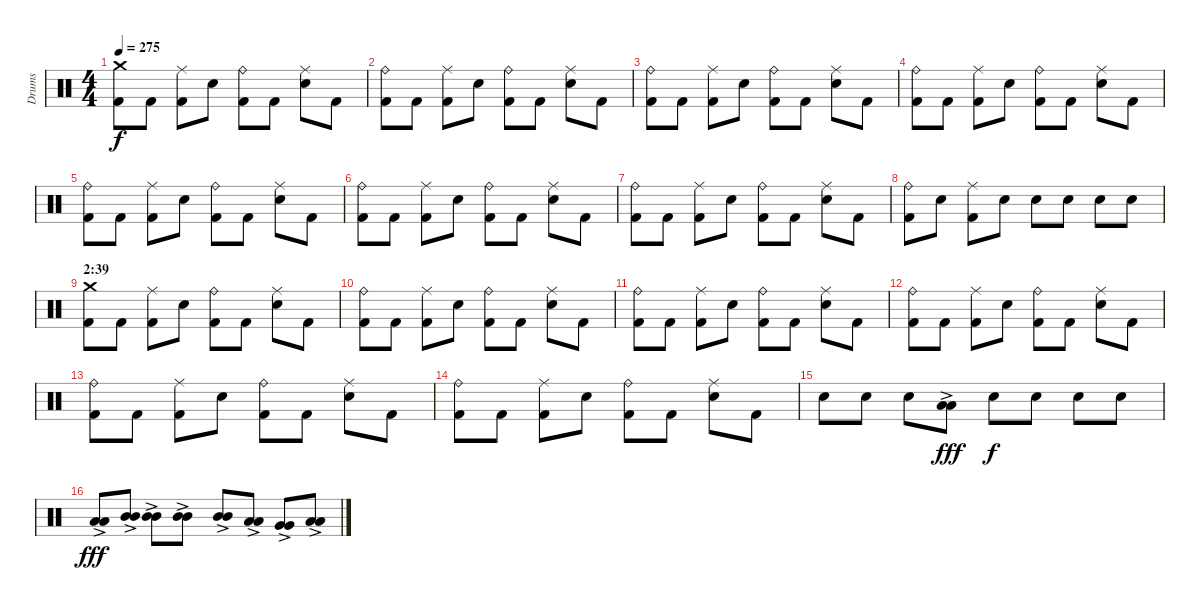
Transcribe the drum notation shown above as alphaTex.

\track ("Drums" "Drums") {instrument percussion}
\staff {score}
\articulation defaults
\ts (4 4)
\tempo 275
\clef neutral
\ks c
("Crash medium (hit)" "Kick (hit) 2").8{dy f} "Kick (hit) 2".8 ("Ride (middle)" "Kick (hit) 2").8 "Electric Snare (hit)".8 ("Ride (bell)" "Kick (hit) 2").8 "Kick (hit) 2".8 ("Ride (middle)" "Electric Snare (hit)").8 "Kick (hit) 2".8 |
("Ride (bell)" "Kick (hit) 2").8 "Kick (hit) 2".8 ("Ride (middle)" "Kick (hit) 2").8 "Electric Snare (hit)".8 ("Ride (bell)" "Kick (hit) 2").8 "Kick (hit) 2".8 ("Ride (middle)" "Electric Snare (hit)").8 "Kick (hit) 2".8 |
("Ride (bell)" "Kick (hit) 2").8 "Kick (hit) 2".8 ("Ride (middle)" "Kick (hit) 2").8 "Electric Snare (hit)".8 ("Ride (bell)" "Kick (hit) 2").8 "Kick (hit) 2".8 ("Ride (middle)" "Electric Snare (hit)").8 "Kick (hit) 2".8 |
("Ride (bell)" "Kick (hit) 2").8 "Kick (hit) 2".8 ("Ride (middle)" "Kick (hit) 2").8 "Electric Snare (hit)".8 ("Ride (bell)" "Kick (hit) 2").8 "Kick (hit) 2".8 ("Ride (middle)" "Electric Snare (hit)").8 "Kick (hit) 2".8 |
("Ride (bell)" "Kick (hit) 2").8 "Kick (hit) 2".8 ("Ride (middle)" "Kick (hit) 2").8 "Electric Snare (hit)".8 ("Ride (bell)" "Kick (hit) 2").8 "Kick (hit) 2".8 ("Ride (middle)" "Electric Snare (hit)").8 "Kick (hit) 2".8 |
("Ride (bell)" "Kick (hit) 2").8 "Kick (hit) 2".8 ("Ride (middle)" "Kick (hit) 2").8 "Electric Snare (hit)".8 ("Ride (bell)" "Kick (hit) 2").8 "Kick (hit) 2".8 ("Ride (middle)" "Electric Snare (hit)").8 "Kick (hit) 2".8 |
("Ride (bell)" "Kick (hit) 2").8 "Kick (hit) 2".8 ("Ride (middle)" "Kick (hit) 2").8 "Electric Snare (hit)".8 ("Ride (bell)" "Kick (hit) 2").8 "Kick (hit) 2".8 ("Ride (middle)" "Electric Snare (hit)").8 "Kick (hit) 2".8 |
("Ride (bell)" "Kick (hit) 2").8 "Electric Snare (hit)".8 ("Ride (middle)" "Kick (hit) 2").8 "Electric Snare (hit)".8 "Electric Snare (hit)".8 "Electric Snare (hit)".8 "Electric Snare (hit)".8 "Electric Snare (hit)".8 |
\section ("" "2:39")
("Crash medium (hit)" "Kick (hit) 2").8 "Kick (hit) 2".8 ("Ride (middle)" "Kick (hit) 2").8 "Electric Snare (hit)".8 ("Ride (bell)" "Kick (hit) 2").8 "Kick (hit) 2".8 ("Ride (middle)" "Electric Snare (hit)").8 "Kick (hit) 2".8 |
("Ride (bell)" "Kick (hit) 2").8 "Kick (hit) 2".8 ("Ride (middle)" "Kick (hit) 2").8 "Electric Snare (hit)".8 ("Ride (bell)" "Kick (hit) 2").8 "Kick (hit) 2".8 ("Ride (middle)" "Electric Snare (hit)").8 "Kick (hit) 2".8 |
("Ride (bell)" "Kick (hit) 2").8 "Kick (hit) 2".8 ("Ride (middle)" "Kick (hit) 2").8 "Electric Snare (hit)".8 ("Ride (bell)" "Kick (hit) 2").8 "Kick (hit) 2".8 ("Ride (middle)" "Electric Snare (hit)").8 "Kick (hit) 2".8 |
("Ride (bell)" "Kick (hit) 2").8 "Kick (hit) 2".8 ("Ride (middle)" "Kick (hit) 2").8 "Electric Snare (hit)".8 ("Ride (bell)" "Kick (hit) 2").8 "Kick (hit) 2".8 ("Ride (middle)" "Electric Snare (hit)").8 "Kick (hit) 2".8 |
("Ride (bell)" "Kick (hit) 2").8 "Kick (hit) 2".8 ("Ride (middle)" "Kick (hit) 2").8 "Electric Snare (hit)".8 ("Ride (bell)" "Kick (hit) 2").8 "Kick (hit) 2".8 ("Ride (middle)" "Electric Snare (hit)").8 "Kick (hit) 2".8 |
("Ride (bell)" "Kick (hit) 2").8 "Kick (hit) 2".8 ("Ride (middle)" "Kick (hit) 2").8 "Electric Snare (hit)".8 ("Ride (bell)" "Kick (hit) 2").8 "Kick (hit) 2".8 ("Ride (middle)" "Electric Snare (hit)").8 "Kick (hit) 2".8 |
"Electric Snare (hit)".8 "Electric Snare (hit)".8 "Electric Snare (hit)".8 ("Low Tom (hit)"{ac} "Low Tom (hit)"{ac}).8{dy fff} "Electric Snare (hit)".8{dy f} "Electric Snare (hit)".8 "Electric Snare (hit)".8 "Electric Snare (hit)".8 |
("Low Tom (hit)"{ac} "Low Tom (hit)"{ac}).8{dy fff} ("Mid Tom (hit)"{ac} "Mid Tom (hit)"{ac}).8 ("Mid Tom (hit)"{ac} "Mid Tom (hit)"{ac}).8 ("Mid Tom (hit)"{ac} "Mid Tom (hit)"{ac}).8 ("Mid Tom (hit)"{ac} "Mid Tom (hit)"{ac}).8 ("Low Tom (hit)"{ac} "Low Tom (hit)"{ac}).8 ("Very Low Tom (hit)"{ac} "Very Low Tom (hit)"{ac}).8 ("Low Floor Tom (hit)"{ac} "Low Floor Tom (hit)"{ac}).8
